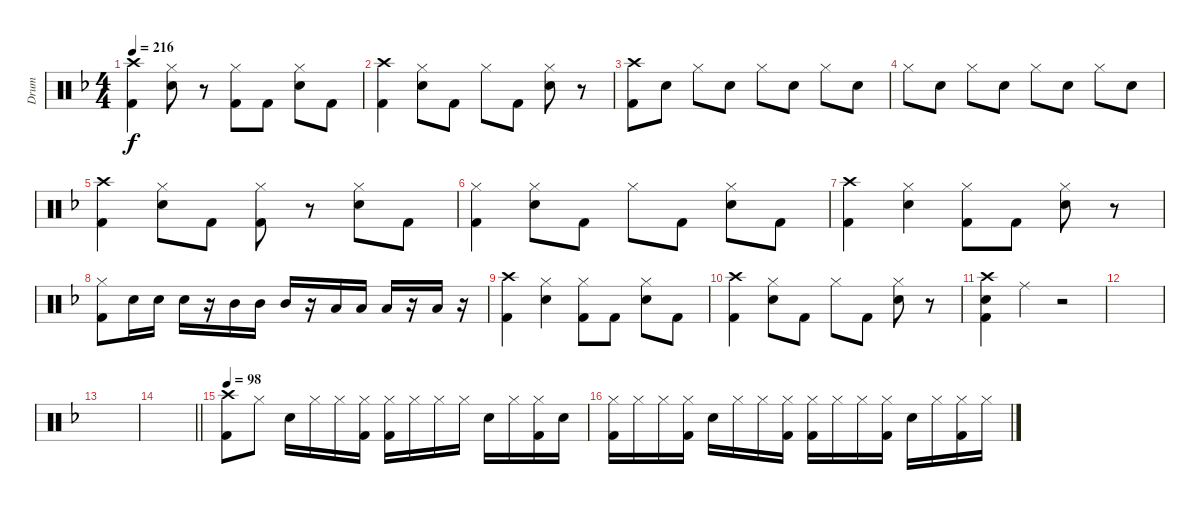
\track ("Drum" "Drum") {instrument percussion}
\staff {score}
\articulation defaults
\ts (4 4)
\tempo 216
\clef neutral
\ks f
("Crash high (hit)" "Kick (hit) 2").4{dy f} ("Hi-Hat (closed)" "Snare (hit) 2").8 r.8 ("Hi-Hat (closed)" "Kick (hit) 2").8 "Kick (hit) 2".8 ("Hi-Hat (closed)" "Snare (hit) 2").8 "Kick (hit) 2".8 |
("Crash high (hit)" "Kick (hit) 2").4 ("Hi-Hat (closed)" "Snare (hit) 2").8 "Kick (hit) 2".8 "Hi-Hat (closed)".8 "Kick (hit) 2".8 ("Hi-Hat (closed)" "Snare (hit) 2").8 r.8 |
("Crash high (hit)" "Kick (hit) 2").8 "Snare (hit) 2".8 "Hi-Hat (closed)".8 "Snare (hit) 2".8 "Hi-Hat (closed)".8 "Snare (hit) 2".8 "Hi-Hat (closed)".8 "Snare (hit) 2".8 |
"Hi-Hat (closed)".8 "Snare (hit) 2".8 "Hi-Hat (closed)".8 "Snare (hit) 2".8 "Hi-Hat (closed)".8 "Snare (hit) 2".8 "Hi-Hat (closed)".8 "Snare (hit) 2".8 |
("Crash high (hit)" "Kick (hit) 2").4 ("Hi-Hat (closed)" "Snare (hit) 2").8 "Kick (hit) 2".8 ("Hi-Hat (closed)" "Kick (hit) 2").8 r.8 ("Hi-Hat (closed)" "Snare (hit) 2").8 "Kick (hit) 2".8 |
("Hi-Hat (closed)" "Kick (hit) 2").4 ("Hi-Hat (closed)" "Snare (hit) 2").8 "Kick (hit) 2".8 "Hi-Hat (closed)".8 "Kick (hit) 2".8 ("Hi-Hat (closed)" "Snare (hit) 2").8 "Kick (hit) 2".8 |
("Crash high (hit)" "Kick (hit) 2").4 ("Hi-Hat (closed)" "Snare (hit) 2").4 ("Hi-Hat (closed)" "Kick (hit) 2").8 "Kick (hit) 2".8 ("Hi-Hat (closed)" "Snare (hit) 2").8 r.8 |
("Hi-Hat (closed)" "Kick (hit) 2").8 "Snare (hit) 2".16 "Snare (hit) 2".16 "Snare (hit) 2".16 r.16 "Mid Tom (hit)".16 "Mid Tom (hit)".16 "Mid Tom (hit)".16 r.16 "Low Floor Tom (hit)".16 "Low Floor Tom (hit)".16 "Low Floor Tom (hit)".16 r.16 "Low Floor Tom (hit)".16 r.16 |
("Crash high (hit)" "Kick (hit) 2").4 ("Hi-Hat (closed)" "Snare (hit) 2").4 ("Hi-Hat (closed)" "Kick (hit) 2").8 "Kick (hit) 2".8 ("Hi-Hat (closed)" "Snare (hit) 2").8 "Kick (hit) 2".8 |
("Crash high (hit)" "Kick (hit) 2").4 ("Hi-Hat (closed)" "Snare (hit) 2").8 "Kick (hit) 2".8 "Hi-Hat (closed)".8 "Kick (hit) 2".8 ("Hi-Hat (closed)" "Snare (hit) 2").8 r.8 |
("Crash high (hit)" "Snare (hit) 2" "Kick (hit) 2").4 "Ride (middle)".4 r.2 |
|
|
\barLineRight lightlight
|
\tempo 98
("Crash high (hit)" "Kick (hit) 2").8 "Hi-Hat (closed)".8 "Snare (hit) 2".16 "Hi-Hat (closed)".16 "Hi-Hat (closed)".16 ("Hi-Hat (closed)" "Kick (hit) 2").16 ("Hi-Hat (closed)" "Kick (hit) 2").16 "Hi-Hat (closed)".16 "Hi-Hat (closed)".16 "Hi-Hat (closed)".16 "Snare (hit) 2".16 "Hi-Hat (closed)".16 ("Hi-Hat (closed)" "Kick (hit) 2").16 "Snare (hit)".16 |
("Hi-Hat (closed)" "Kick (hit) 2").16 "Hi-Hat (closed)".16 "Hi-Hat (closed)".16 ("Hi-Hat (closed)" "Kick (hit) 2").16 "Snare (hit) 2".16 "Hi-Hat (closed)".16 "Hi-Hat (closed)".16 ("Hi-Hat (closed)" "Kick (hit) 2").16 ("Hi-Hat (closed)" "Kick (hit) 2").16 "Hi-Hat (closed)".16 "Hi-Hat (closed)".16 ("Hi-Hat (closed)" "Kick (hit) 2").16 "Snare (hit) 2".16 "Hi-Hat (closed)".16 ("Hi-Hat (closed)" "Kick (hit) 2").16 "Hi-Hat (closed)".16
